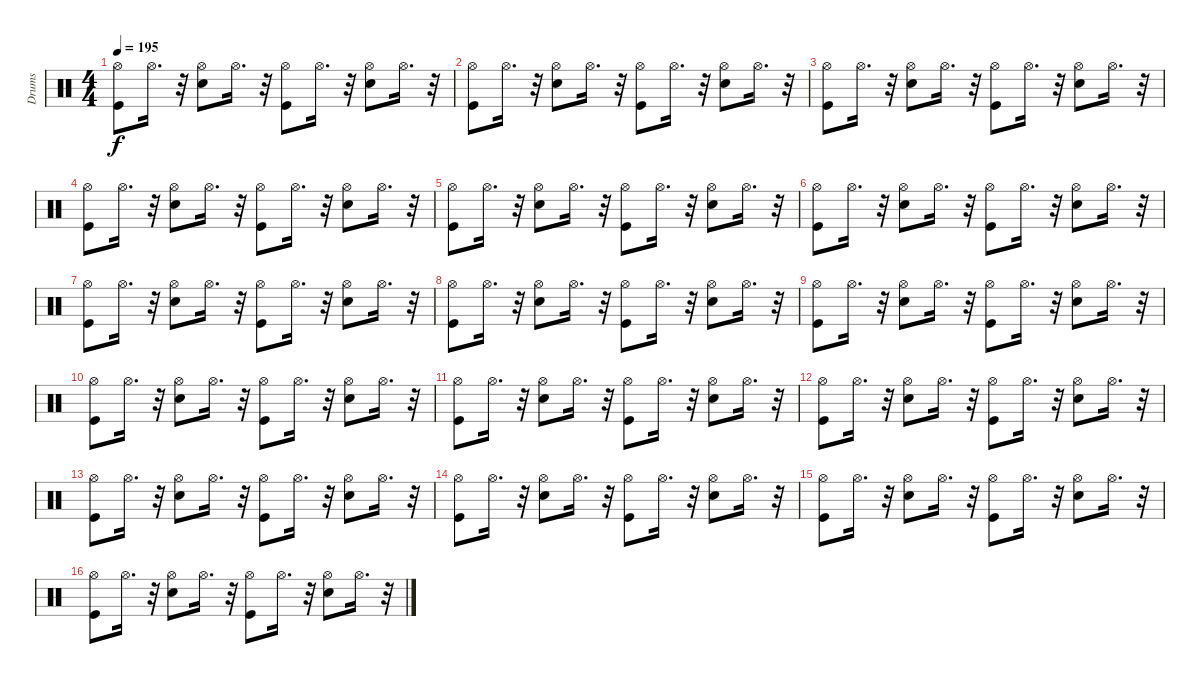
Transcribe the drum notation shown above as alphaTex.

\track ("Drums" "Drums") {instrument percussion}
\staff {score}
\articulation defaults
\ts (4 4)
\tempo 195
\clef neutral
\ks c
("Hi-Hat (open)" "Kick (hit)").8{dy f} "Hi-Hat (open)".16{d} r.32 ("Hi-Hat (open)" "Electric Snare (hit)").8 "Hi-Hat (open)".16{d} r.32 ("Kick (hit)" "Hi-Hat (open)").8 "Hi-Hat (open)".16{d} r.32 ("Hi-Hat (open)" "Electric Snare (hit)").8 "Hi-Hat (open)".16{d} r.32 |
("Hi-Hat (open)" "Kick (hit)").8 "Hi-Hat (open)".16{d} r.32 ("Hi-Hat (open)" "Electric Snare (hit)").8 "Hi-Hat (open)".16{d} r.32 ("Kick (hit)" "Hi-Hat (open)").8 "Hi-Hat (open)".16{d} r.32 ("Hi-Hat (open)" "Electric Snare (hit)").8 "Hi-Hat (open)".16{d} r.32 |
("Hi-Hat (open)" "Kick (hit)").8 "Hi-Hat (open)".16{d} r.32 ("Electric Snare (hit)" "Hi-Hat (open)").8 "Hi-Hat (open)".16{d} r.32 ("Hi-Hat (open)" "Kick (hit)").8 "Hi-Hat (open)".16{d} r.32 ("Electric Snare (hit)" "Hi-Hat (open)").8 "Hi-Hat (open)".16{d} r.32 |
("Hi-Hat (open)" "Kick (hit)").8 "Hi-Hat (open)".16{d} r.32 ("Hi-Hat (open)" "Electric Snare (hit)").8 "Hi-Hat (open)".16{d} r.32 ("Kick (hit)" "Hi-Hat (open)").8 "Hi-Hat (open)".16{d} r.32 ("Hi-Hat (open)" "Electric Snare (hit)").8 "Hi-Hat (open)".16{d} r.32 |
("Kick (hit)" "Hi-Hat (open)").8 "Hi-Hat (open)".16{d} r.32 ("Electric Snare (hit)" "Hi-Hat (open)").8 "Hi-Hat (open)".16{d} r.32 ("Hi-Hat (open)" "Kick (hit)").8 "Hi-Hat (open)".16{d} r.32 ("Hi-Hat (open)" "Electric Snare (hit)").8 "Hi-Hat (open)".16{d} r.32 |
("Hi-Hat (open)" "Kick (hit)").8 "Hi-Hat (open)".16{d} r.32 ("Hi-Hat (open)" "Electric Snare (hit)").8 "Hi-Hat (open)".16{d} r.32 ("Hi-Hat (open)" "Kick (hit)").8 "Hi-Hat (open)".16{d} r.32 ("Hi-Hat (open)" "Electric Snare (hit)").8 "Hi-Hat (open)".16{d} r.32 |
("Kick (hit)" "Hi-Hat (open)").8 "Hi-Hat (open)".16{d} r.32 ("Hi-Hat (open)" "Electric Snare (hit)").8 "Hi-Hat (open)".16{d} r.32 ("Hi-Hat (open)" "Kick (hit)").8 "Hi-Hat (open)".16{d} r.32 ("Electric Snare (hit)" "Hi-Hat (open)").8 "Hi-Hat (open)".16{d} r.32 |
("Hi-Hat (open)" "Kick (hit)").8 "Hi-Hat (open)".16{d} r.32 ("Hi-Hat (open)" "Electric Snare (hit)").8 "Hi-Hat (open)".16{d} r.32 ("Kick (hit)" "Hi-Hat (open)").8 "Hi-Hat (open)".16{d} r.32 ("Electric Snare (hit)" "Hi-Hat (open)").8 "Hi-Hat (open)".16{d} r.32 |
("Hi-Hat (open)" "Kick (hit)").8 "Hi-Hat (open)".16{d} r.32 ("Electric Snare (hit)" "Hi-Hat (open)").8 "Hi-Hat (open)".16{d} r.32 ("Hi-Hat (open)" "Kick (hit)").8 "Hi-Hat (open)".16{d} r.32 ("Hi-Hat (open)" "Electric Snare (hit)").8 "Hi-Hat (open)".16{d} r.32 |
("Kick (hit)" "Hi-Hat (open)").8 "Hi-Hat (open)".16{d} r.32 ("Hi-Hat (open)" "Electric Snare (hit)").8 "Hi-Hat (open)".16{d} r.32 ("Kick (hit)" "Hi-Hat (open)").8 "Hi-Hat (open)".16{d} r.32 ("Electric Snare (hit)" "Hi-Hat (open)").8 "Hi-Hat (open)".16{d} r.32 |
("Hi-Hat (open)" "Kick (hit)").8 "Hi-Hat (open)".16{d} r.32 ("Hi-Hat (open)" "Electric Snare (hit)").8 "Hi-Hat (open)".16{d} r.32 ("Hi-Hat (open)" "Kick (hit)").8 "Hi-Hat (open)".16{d} r.32 ("Hi-Hat (open)" "Electric Snare (hit)").8 "Hi-Hat (open)".16{d} r.32 |
("Hi-Hat (open)" "Kick (hit)").8 "Hi-Hat (open)".16{d} r.32 ("Hi-Hat (open)" "Electric Snare (hit)").8 "Hi-Hat (open)".16{d} r.32 ("Kick (hit)" "Hi-Hat (open)").8 "Hi-Hat (open)".16{d} r.32 ("Electric Snare (hit)" "Hi-Hat (open)").8 "Hi-Hat (open)".16{d} r.32 |
("Kick (hit)" "Hi-Hat (open)").8 "Hi-Hat (open)".16{d} r.32 ("Hi-Hat (open)" "Electric Snare (hit)").8 "Hi-Hat (open)".16{d} r.32 ("Kick (hit)" "Hi-Hat (open)").8 "Hi-Hat (open)".16{d} r.32 ("Electric Snare (hit)" "Hi-Hat (open)").8 "Hi-Hat (open)".16{d} r.32 |
("Kick (hit)" "Hi-Hat (open)").8 "Hi-Hat (open)".16{d} r.32 ("Electric Snare (hit)" "Hi-Hat (open)").8 "Hi-Hat (open)".16{d} r.32 ("Kick (hit)" "Hi-Hat (open)").8 "Hi-Hat (open)".16{d} r.32 ("Hi-Hat (open)" "Electric Snare (hit)").8 "Hi-Hat (open)".16{d} r.32 |
("Kick (hit)" "Hi-Hat (open)").8 "Hi-Hat (open)".16{d} r.32 ("Electric Snare (hit)" "Hi-Hat (open)").8 "Hi-Hat (open)".16{d} r.32 ("Hi-Hat (open)" "Kick (hit)").8 "Hi-Hat (open)".16{d} r.32 ("Electric Snare (hit)" "Hi-Hat (open)").8 "Hi-Hat (open)".16{d} r.32 |
("Hi-Hat (open)" "Kick (hit)").8 "Hi-Hat (open)".16{d} r.32 ("Hi-Hat (open)" "Electric Snare (hit)").8 "Hi-Hat (open)".16{d} r.32 ("Kick (hit)" "Hi-Hat (open)").8 "Hi-Hat (open)".16{d} r.32 ("Electric Snare (hit)" "Hi-Hat (open)").8 "Hi-Hat (open)".16{d} r.32
